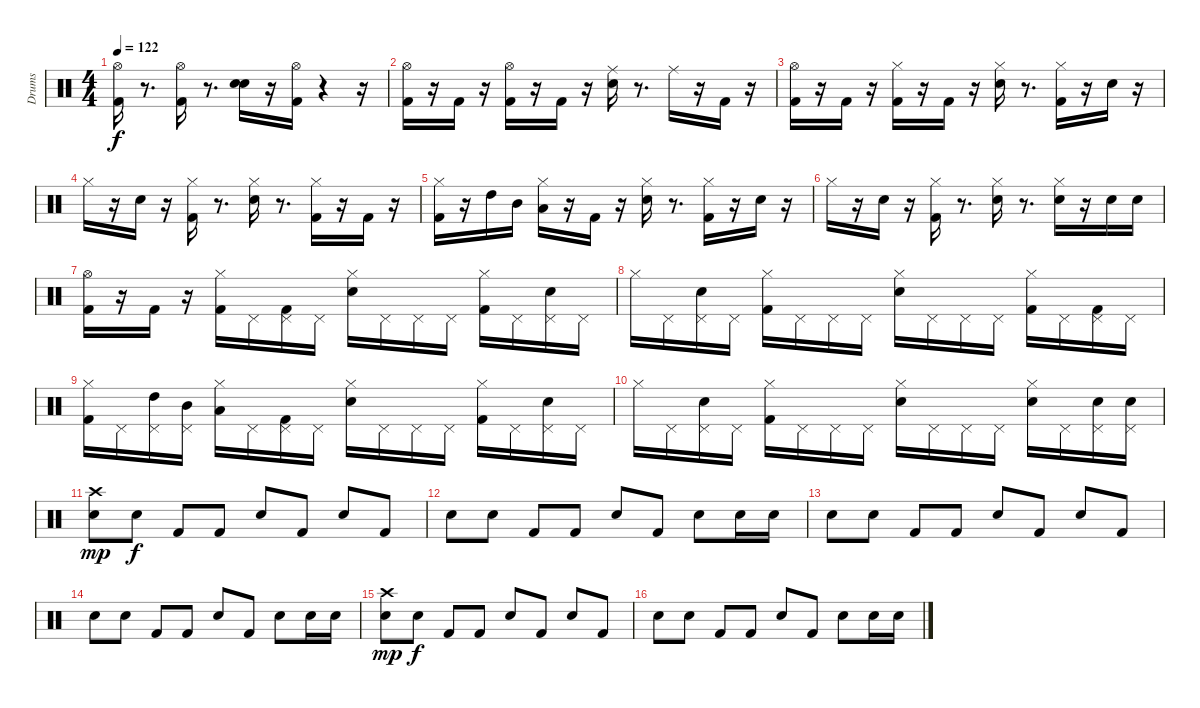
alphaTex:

\track ("Drums" "Drums") {instrument percussion}
\staff
\articulation defaults
\ts (4 4)
\tempo 122
\clef neutral
\ks c
("Kick (hit) 2" "Hi-Hat (open)").16{dy f} r.8{d} ("Kick (hit) 2" "Hi-Hat (open)").16 r.8{d} ("Electric Snare (hit)" "Snare (hit) 2").16 r.16 ("Kick (hit) 2" "Hi-Hat (open)").16 r.4 r.16 |
("Kick (hit) 2" "Hi-Hat (open)").16 r.16 "Kick (hit) 2".16 r.16 ("Kick (hit) 2" "Hi-Hat (open)").16 r.16 "Kick (hit) 2".16 r.16 ("Snare (hit) 2" "Ride (middle)").16 r.8{d} "Ride (middle)".16 r.16 "Kick (hit) 2".16 r.16 |
("Kick (hit) 2" "Hi-Hat (open)").16 r.16 "Kick (hit) 2".16 r.16 ("Hi-Hat (closed)" "Kick (hit) 2").16 r.16 "Kick (hit) 2".16 r.16 ("Hi-Hat (closed)" "Snare (hit) 2").16 r.8{d} ("Kick (hit) 2" "Hi-Hat (closed)").16 r.16 "Snare (hit) 2".16 r.16 |
"Hi-Hat (closed)".16 r.16 "Snare (hit) 2".16 r.16 ("Kick (hit) 2" "Hi-Hat (closed)").16 r.8{d} ("Snare (hit) 2" "Hi-Hat (closed)").16 r.8{d} ("Hi-Hat (closed)" "Kick (hit) 2").16 r.16 "Kick (hit) 2".16 r.16 |
("Kick (hit) 2" "Hi-Hat (closed)").16 r.16 "High Tom (hit)".16 "Mid Tom (hit)".16 ("Hi-Hat (closed)" "Low Tom (hit)").16 r.16 "Kick (hit) 2".16 r.16 ("Snare (hit) 2" "Hi-Hat (closed)").16 r.8{d} ("Hi-Hat (closed)" "Kick (hit) 2").16 r.16 "Snare (hit) 2".16 r.16 |
"Hi-Hat (closed)".16 r.16 "Snare (hit) 2".16 r.16 ("Kick (hit) 2" "Hi-Hat (closed)").16 r.8{d} ("Snare (hit) 2" "Hi-Hat (closed)").16 r.8{d} ("Snare (hit) 2" "Hi-Hat (closed)").16 r.16 "Snare (hit) 2".16 "Snare (hit) 2".16 |
("Kick (hit) 2" "Hi-Hat (open)").16 r.16 "Kick (hit) 2".16 r.16 ("Hi-Hat (closed)" "Kick (hit) 2").16 "Pedal Hi-Hat (hit)".16 ("Pedal Hi-Hat (hit)" "Kick (hit) 2").16 "Pedal Hi-Hat (hit)".16 ("Hi-Hat (closed)" "Snare (hit) 2").16 "Pedal Hi-Hat (hit)".16 "Pedal Hi-Hat (hit)".16 "Pedal Hi-Hat (hit)".16 ("Kick (hit) 2" "Hi-Hat (closed)").16 "Pedal Hi-Hat (hit)".16 ("Pedal Hi-Hat (hit)" "Snare (hit) 2").16 "Pedal Hi-Hat (hit)".16 |
"Hi-Hat (closed)".16 "Pedal Hi-Hat (hit)".16 ("Pedal Hi-Hat (hit)" "Snare (hit) 2").16 "Pedal Hi-Hat (hit)".16 ("Kick (hit) 2" "Hi-Hat (closed)").16 "Pedal Hi-Hat (hit)".16 "Pedal Hi-Hat (hit)".16 "Pedal Hi-Hat (hit)".16 ("Snare (hit) 2" "Hi-Hat (closed)").16 "Pedal Hi-Hat (hit)".16 "Pedal Hi-Hat (hit)".16 "Pedal Hi-Hat (hit)".16 ("Hi-Hat (closed)" "Kick (hit) 2").16 "Pedal Hi-Hat (hit)".16 ("Pedal Hi-Hat (hit)" "Kick (hit) 2").16 "Pedal Hi-Hat (hit)".16 |
("Kick (hit) 2" "Hi-Hat (closed)").16 "Pedal Hi-Hat (hit)".16 ("Pedal Hi-Hat (hit)" "High Tom (hit)").16 ("Pedal Hi-Hat (hit)" "Mid Tom (hit)").16 ("Hi-Hat (closed)" "Low Tom (hit)").16 "Pedal Hi-Hat (hit)".16 ("Pedal Hi-Hat (hit)" "Kick (hit) 2").16 "Pedal Hi-Hat (hit)".16 ("Snare (hit) 2" "Hi-Hat (closed)").16 "Pedal Hi-Hat (hit)".16 "Pedal Hi-Hat (hit)".16 "Pedal Hi-Hat (hit)".16 ("Hi-Hat (closed)" "Kick (hit) 2").16 "Pedal Hi-Hat (hit)".16 ("Pedal Hi-Hat (hit)" "Snare (hit) 2").16 "Pedal Hi-Hat (hit)".16 |
"Hi-Hat (closed)".16 "Pedal Hi-Hat (hit)".16 ("Pedal Hi-Hat (hit)" "Snare (hit) 2").16 "Pedal Hi-Hat (hit)".16 ("Kick (hit) 2" "Hi-Hat (closed)").16 "Pedal Hi-Hat (hit)".16 "Pedal Hi-Hat (hit)".16 "Pedal Hi-Hat (hit)".16 ("Snare (hit) 2" "Hi-Hat (closed)").16 "Pedal Hi-Hat (hit)".16 "Pedal Hi-Hat (hit)".16 "Pedal Hi-Hat (hit)".16 ("Snare (hit) 2" "Hi-Hat (closed)").16 "Pedal Hi-Hat (hit)".16 ("Snare (hit) 2" "Pedal Hi-Hat (hit)").16 ("Snare (hit) 2" "Pedal Hi-Hat (hit)").16 |
("Crash high (hit)" "Electric Snare (hit)").8{dy mp} "Electric Snare (hit)".8{dy f} "Kick (hit) 2".8 "Kick (hit) 2".8 "Electric Snare (hit)".8 "Kick (hit) 2".8 "Electric Snare (hit)".8 "Kick (hit) 2".8 |
"Electric Snare (hit)".8 "Electric Snare (hit)".8 "Kick (hit) 2".8 "Kick (hit) 2".8 "Electric Snare (hit)".8 "Kick (hit) 2".8 "Electric Snare (hit)".8 "Electric Snare (hit)".16 "Electric Snare (hit)".16 |
"Electric Snare (hit)".8 "Electric Snare (hit)".8 "Kick (hit) 2".8 "Kick (hit) 2".8 "Electric Snare (hit)".8 "Kick (hit) 2".8 "Electric Snare (hit)".8 "Kick (hit) 2".8 |
"Electric Snare (hit)".8 "Electric Snare (hit)".8 "Kick (hit) 2".8 "Kick (hit) 2".8 "Electric Snare (hit)".8 "Kick (hit) 2".8 "Electric Snare (hit)".8 "Electric Snare (hit)".16 "Electric Snare (hit)".16 |
("Crash high (hit)" "Electric Snare (hit)").8{dy mp} "Electric Snare (hit)".8{dy f} "Kick (hit) 2".8 "Kick (hit) 2".8 "Electric Snare (hit)".8 "Kick (hit) 2".8 "Electric Snare (hit)".8 "Kick (hit) 2".8 |
"Electric Snare (hit)".8 "Electric Snare (hit)".8 "Kick (hit) 2".8 "Kick (hit) 2".8 "Electric Snare (hit)".8 "Kick (hit) 2".8 "Electric Snare (hit)".8 "Electric Snare (hit)".16 "Electric Snare (hit)".16
